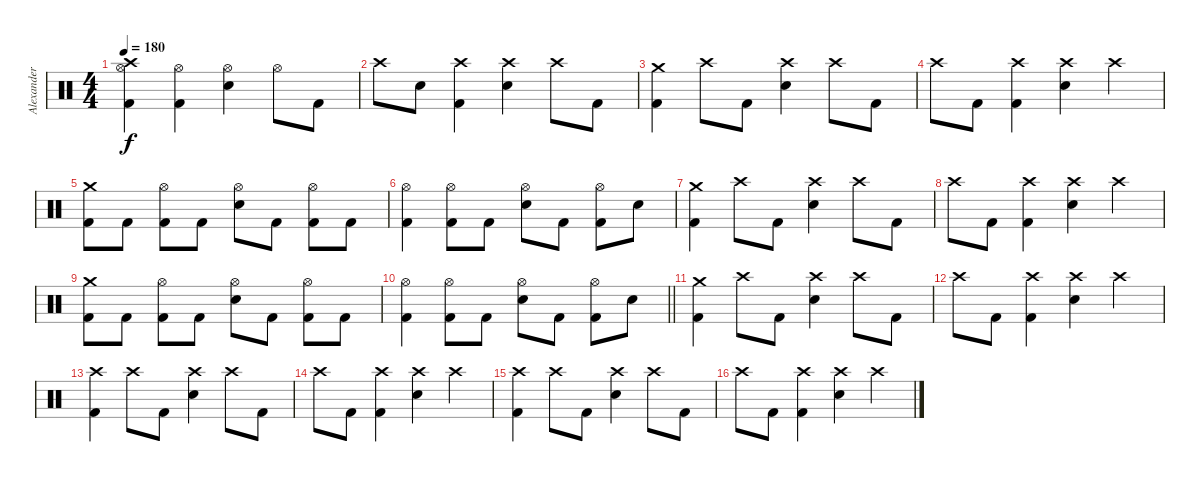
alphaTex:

\track ("Alexander Sveningsson" "Alexander ") {instrument percussion}
\staff {score}
\articulation defaults
\ts (4 4)
\tempo 180
\clef neutral
\ks c
("Crash high (hit)" "Hi-Hat (open)" "Kick (hit) 2").4{dy f} ("Hi-Hat (open)" "Kick (hit) 2").4 ("Hi-Hat (open)" "Electric Snare (hit)").4 "Hi-Hat (open)".8 "Kick (hit) 2".8 |
"Crash high (hit)".8 "Electric Snare (hit)".8 ("Crash high (hit)" "Kick (hit) 2").4 ("Crash high (hit)" "Electric Snare (hit)").4 "Crash high (hit)".8 "Kick (hit) 2".8 |
("Crash medium (hit)" "Kick (hit) 2").4 "Crash high (hit)".8 "Kick (hit) 2".8 ("Crash high (hit)" "Electric Snare (hit)").4 "Crash high (hit)".8 "Kick (hit) 2".8 |
"Crash high (hit)".8 "Kick (hit) 2".8 ("Crash high (hit)" "Kick (hit) 2").4 ("Crash high (hit)" "Electric Snare (hit)").4 "Crash high (hit)".4 |
("Crash medium (hit)" "Kick (hit) 2").8 "Kick (hit) 2".8 ("Hi-Hat (open)" "Kick (hit) 2").8 "Kick (hit) 2".8 ("Hi-Hat (open)" "Electric Snare (hit)").8 "Kick (hit) 2".8 ("Hi-Hat (open)" "Kick (hit) 2").8 "Kick (hit) 2".8 |
("Hi-Hat (open)" "Kick (hit) 2").4 ("Hi-Hat (open)" "Kick (hit) 2").8 "Kick (hit) 2".8 ("Hi-Hat (open)" "Electric Snare (hit)").8 "Kick (hit) 2".8 ("Hi-Hat (open)" "Kick (hit) 2").8 "Electric Snare (hit)".8 |
("Crash medium (hit)" "Kick (hit) 2").4 "Crash high (hit)".8 "Kick (hit) 2".8 ("Crash high (hit)" "Electric Snare (hit)").4 "Crash high (hit)".8 "Kick (hit) 2".8 |
"Crash high (hit)".8 "Kick (hit) 2".8 ("Crash high (hit)" "Kick (hit) 2").4 ("Crash high (hit)" "Electric Snare (hit)").4 "Crash high (hit)".4 |
("Crash medium (hit)" "Kick (hit) 2").8 "Kick (hit) 2".8 ("Hi-Hat (open)" "Kick (hit) 2").8 "Kick (hit) 2".8 ("Hi-Hat (open)" "Electric Snare (hit)").8 "Kick (hit) 2".8 ("Hi-Hat (open)" "Kick (hit) 2").8 "Kick (hit) 2".8 |
\barLineRight lightlight
("Hi-Hat (open)" "Kick (hit) 2").4 ("Hi-Hat (open)" "Kick (hit) 2").8 "Kick (hit) 2".8 ("Hi-Hat (open)" "Electric Snare (hit)").8 "Kick (hit) 2".8 ("Hi-Hat (open)" "Kick (hit) 2").8 "Electric Snare (hit)".8 |
("Crash medium (hit)" "Kick (hit) 2").4 "Crash high (hit)".8 "Kick (hit) 2".8 ("Crash high (hit)" "Electric Snare (hit)").4 "Crash high (hit)".8 "Kick (hit) 2".8 |
"Crash high (hit)".8 "Kick (hit) 2".8 ("Crash high (hit)" "Kick (hit) 2").4 ("Crash high (hit)" "Electric Snare (hit)").4 "Crash high (hit)".4 |
("Crash high (hit)" "Kick (hit) 2").4 "Crash high (hit)".8 "Kick (hit) 2".8 ("Crash high (hit)" "Electric Snare (hit)").4 "Crash high (hit)".8 "Kick (hit) 2".8 |
"Crash high (hit)".8 "Kick (hit) 2".8 ("Crash high (hit)" "Kick (hit) 2").4 ("Crash high (hit)" "Electric Snare (hit)").4 "Crash high (hit)".4 |
("Crash high (hit)" "Kick (hit) 2").4 "Crash high (hit)".8 "Kick (hit) 2".8 ("Crash high (hit)" "Electric Snare (hit)").4 "Crash high (hit)".8 "Kick (hit) 2".8 |
"Crash high (hit)".8 "Kick (hit) 2".8 ("Crash high (hit)" "Kick (hit) 2").4 ("Crash high (hit)" "Electric Snare (hit)").4 "Crash high (hit)".4
